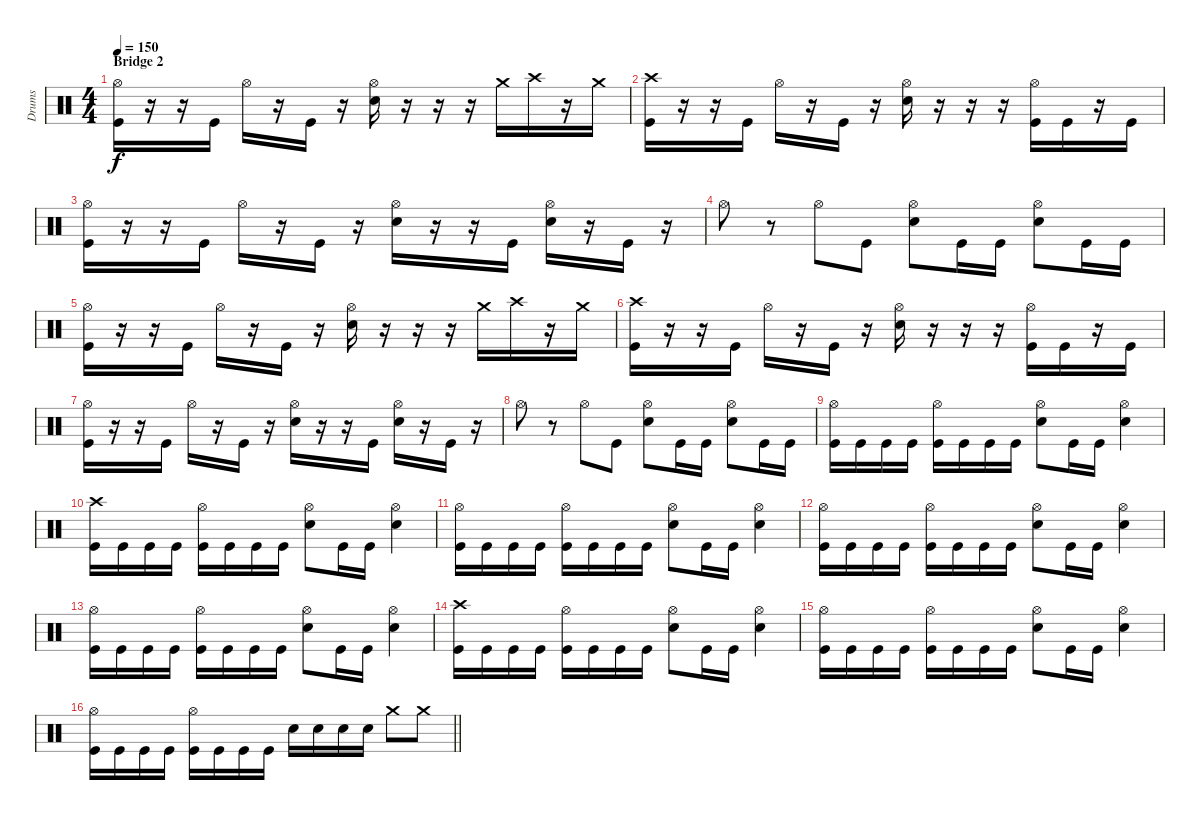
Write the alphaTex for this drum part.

\track ("Drums" "Drums") {instrument percussion}
\staff {score}
\articulation defaults
\ts (4 4)
\section ("" "Bridge 2")
\tempo 150
\clef neutral
\ks c
("Hi-Hat (open)" "Kick (hit)").16{dy f} r.16 r.16 "Kick (hit)".16 "Hi-Hat (open)".16 r.16 "Kick (hit)".16 r.16 ("Hi-Hat (open)" "Snare (hit) 2").16 r.16 r.16 r.16 "Crash medium (hit)".16 "Crash high (hit)".16 r.16 "Crash medium (hit)".16 |
("Crash high (hit)" "Kick (hit)").16 r.16 r.16 "Kick (hit)".16 "Hi-Hat (open)".16 r.16 "Kick (hit)".16 r.16 ("Hi-Hat (open)" "Snare (hit) 2").16 r.16 r.16 r.16 ("Hi-Hat (open)" "Kick (hit)").16 "Kick (hit)".16 r.16 "Kick (hit)".16 |
("Hi-Hat (open)" "Kick (hit)").16 r.16 r.16 "Kick (hit)".16 "Hi-Hat (open)".16 r.16 "Kick (hit)".16 r.16 ("Hi-Hat (open)" "Snare (hit) 2").16 r.16 r.16 "Kick (hit)".16 ("Hi-Hat (open)" "Snare (hit) 2").16 r.16 "Kick (hit)".16 r.16 |
"Hi-Hat (open)".8 r.8 "Hi-Hat (open)".8 "Kick (hit)".8 ("Hi-Hat (open)" "Snare (hit) 2").8 "Kick (hit)".16 "Kick (hit)".16 ("Hi-Hat (open)" "Snare (hit) 2").8 "Kick (hit)".16 "Kick (hit)".16 |
("Hi-Hat (open)" "Kick (hit)").16 r.16 r.16 "Kick (hit)".16 "Hi-Hat (open)".16 r.16 "Kick (hit)".16 r.16 ("Hi-Hat (open)" "Snare (hit) 2").16 r.16 r.16 r.16 "Crash medium (hit)".16 "Crash high (hit)".16 r.16 "Crash medium (hit)".16 |
("Crash high (hit)" "Kick (hit)").16 r.16 r.16 "Kick (hit)".16 "Hi-Hat (open)".16 r.16 "Kick (hit)".16 r.16 ("Hi-Hat (open)" "Snare (hit) 2").16 r.16 r.16 r.16 ("Hi-Hat (open)" "Kick (hit)").16 "Kick (hit)".16 r.16 "Kick (hit)".16 |
("Hi-Hat (open)" "Kick (hit)").16 r.16 r.16 "Kick (hit)".16 "Hi-Hat (open)".16 r.16 "Kick (hit)".16 r.16 ("Hi-Hat (open)" "Snare (hit) 2").16 r.16 r.16 "Kick (hit)".16 ("Hi-Hat (open)" "Snare (hit) 2").16 r.16 "Kick (hit)".16 r.16 |
"Hi-Hat (open)".8 r.8 "Hi-Hat (open)".8 "Kick (hit)".8 ("Hi-Hat (open)" "Snare (hit) 2").8 "Kick (hit)".16 "Kick (hit)".16 ("Hi-Hat (open)" "Snare (hit) 2").8 "Kick (hit)".16 "Kick (hit)".16 |
("Hi-Hat (open)" "Kick (hit)").16 "Kick (hit)".16 "Kick (hit)".16 "Kick (hit)".16 ("Hi-Hat (open)" "Kick (hit)").16 "Kick (hit)".16 "Kick (hit)".16 "Kick (hit)".16 ("Hi-Hat (open)" "Snare (hit) 2").8 "Kick (hit)".16 "Kick (hit)".16 ("Hi-Hat (open)" "Snare (hit) 2").4 |
("Crash high (hit)" "Kick (hit)").16 "Kick (hit)".16 "Kick (hit)".16 "Kick (hit)".16 ("Hi-Hat (open)" "Kick (hit)").16 "Kick (hit)".16 "Kick (hit)".16 "Kick (hit)".16 ("Hi-Hat (open)" "Snare (hit) 2").8 "Kick (hit)".16 "Kick (hit)".16 ("Hi-Hat (open)" "Snare (hit) 2").4 |
("Hi-Hat (open)" "Kick (hit)").16 "Kick (hit)".16 "Kick (hit)".16 "Kick (hit)".16 ("Hi-Hat (open)" "Kick (hit)").16 "Kick (hit)".16 "Kick (hit)".16 "Kick (hit)".16 ("Hi-Hat (open)" "Snare (hit) 2").8 "Kick (hit)".16 "Kick (hit)".16 ("Hi-Hat (open)" "Snare (hit) 2").4 |
("Hi-Hat (open)" "Kick (hit)").16 "Kick (hit)".16 "Kick (hit)".16 "Kick (hit)".16 ("Hi-Hat (open)" "Kick (hit)").16 "Kick (hit)".16 "Kick (hit)".16 "Kick (hit)".16 ("Hi-Hat (open)" "Snare (hit) 2").8 "Kick (hit)".16 "Kick (hit)".16 ("Hi-Hat (open)" "Snare (hit) 2").4 |
("Hi-Hat (open)" "Kick (hit)").16 "Kick (hit)".16 "Kick (hit)".16 "Kick (hit)".16 ("Hi-Hat (open)" "Kick (hit)").16 "Kick (hit)".16 "Kick (hit)".16 "Kick (hit)".16 ("Hi-Hat (open)" "Snare (hit) 2").8 "Kick (hit)".16 "Kick (hit)".16 ("Hi-Hat (open)" "Snare (hit) 2").4 |
("Crash high (hit)" "Kick (hit)").16 "Kick (hit)".16 "Kick (hit)".16 "Kick (hit)".16 ("Hi-Hat (open)" "Kick (hit)").16 "Kick (hit)".16 "Kick (hit)".16 "Kick (hit)".16 ("Hi-Hat (open)" "Snare (hit) 2").8 "Kick (hit)".16 "Kick (hit)".16 ("Hi-Hat (open)" "Snare (hit) 2").4 |
("Hi-Hat (open)" "Kick (hit)").16 "Kick (hit)".16 "Kick (hit)".16 "Kick (hit)".16 ("Hi-Hat (open)" "Kick (hit)").16 "Kick (hit)".16 "Kick (hit)".16 "Kick (hit)".16 ("Hi-Hat (open)" "Snare (hit) 2").8 "Kick (hit)".16 "Kick (hit)".16 ("Hi-Hat (open)" "Snare (hit) 2").4 |
\barLineRight lightlight
("Hi-Hat (open)" "Kick (hit)").16 "Kick (hit)".16 "Kick (hit)".16 "Kick (hit)".16 ("Hi-Hat (open)" "Kick (hit)").16 "Kick (hit)".16 "Kick (hit)".16 "Kick (hit)".16 "Snare (hit) 2".16 "Snare (hit) 2".16 "Snare (hit) 2".16 "Snare (hit) 2".16 "Crash medium (hit)".8 "Crash medium (hit)".8
